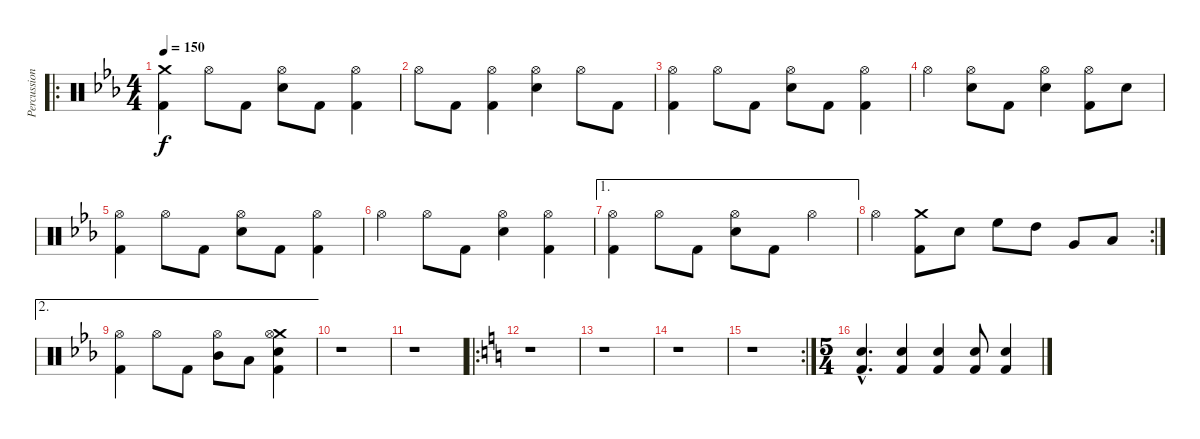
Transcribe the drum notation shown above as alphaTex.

\track ("Percussion" "Percussion") {instrument percussion}
\staff {score}
\articulation defaults
\ro
\ts (4 4)
\tempo 150
\clef neutral
\ks cminor
("Crash medium (hit)" "Kick (hit) 2").4{dy f} "Hi-Hat (open)".8 "Kick (hit) 2".8 ("Hi-Hat (open)" "Electric Snare (hit)").8 "Kick (hit) 2".8 ("Hi-Hat (open)" "Kick (hit) 2").4 |
"Hi-Hat (open)".8 "Kick (hit) 2".8 ("Hi-Hat (open)" "Kick (hit) 2").4 ("Hi-Hat (open)" "Electric Snare (hit)").4 "Hi-Hat (open)".8 "Kick (hit) 2".8 |
("Hi-Hat (open)" "Kick (hit) 2").4 "Hi-Hat (open)".8 "Kick (hit) 2".8 ("Hi-Hat (open)" "Electric Snare (hit)").8 "Kick (hit) 2".8 ("Hi-Hat (open)" "Kick (hit) 2").4 |
"Hi-Hat (open)".4 ("Hi-Hat (open)" "Electric Snare (hit)").8 "Kick (hit) 2".8 ("Hi-Hat (open)" "Electric Snare (hit)").4 ("Hi-Hat (open)" "Kick (hit) 2").8 "Electric Snare (hit)".8 |
("Hi-Hat (open)" "Kick (hit) 2").4 "Hi-Hat (open)".8 "Kick (hit) 2".8 ("Hi-Hat (open)" "Electric Snare (hit)").8 "Kick (hit) 2".8 ("Hi-Hat (open)" "Kick (hit) 2").4 |
"Hi-Hat (open)".4 "Hi-Hat (open)".8 "Kick (hit) 2".8 ("Hi-Hat (open)" "Electric Snare (hit)").4 ("Hi-Hat (open)" "Kick (hit) 2").4 |
\ae 1
("Hi-Hat (open)" "Kick (hit) 2").4 "Hi-Hat (open)".8 "Kick (hit) 2".8 ("Hi-Hat (open)" "Electric Snare (hit)").8 "Kick (hit) 2".8 "Hi-Hat (open)".4 |
\rc 2 "Hi-Hat (open)".4
("Crash medium (hit)" "Kick (hit) 2").8 "Electric Snare (hit)".8 "High Floor Tom (hit)".8 "High Tom (hit)".8 "Very Low Tom (hit)".8 "Low Floor Tom (hit)".8 |
\ae 2
("Hi-Hat (open)" "Kick (hit) 2").4 "Hi-Hat (open)".8 "Kick (hit) 2".8 ("Hi-Hat (open)" "Mid Tom (hit)").8 "Low Tom (hit)".8 ("Crash medium (hit)" "Hi-Hat (open)" "Electric Snare (hit)" "Kick (hit) 2").4 |
r.1 |
r.1 |
\ro
\ks aminor
r.1 |
r.1 |
r.1 |
\rc 2
r.1{volume 7} |
\ts (5 4)
("Electric Snare (hit)"{tr (40 16) hac} "Kick (hit) 2"{hac}).4{d volume 13} ("Electric Snare (hit)"{tr (40 16)} "Kick (hit) 2").4 ("Electric Snare (hit)"{tr (40 16)} "Kick (hit) 2").4 ("Electric Snare (hit)"{tr (40 16)} "Kick (hit) 2").8 ("Electric Snare (hit)"{tr (40 16)} "Kick (hit) 2").4
